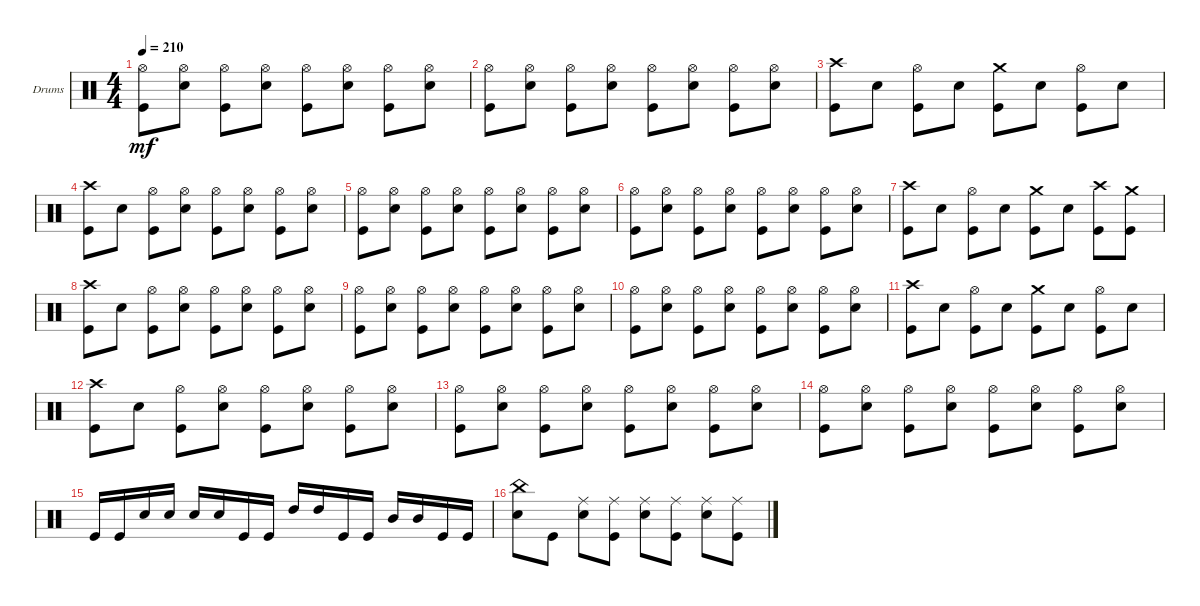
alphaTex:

\bracketExtendMode groupsimilarinstruments
\firstSystemTrackNameOrientation horizontal
\otherSystemsTrackNameOrientation horizontal
\track ("Drumkit" "Drums") {instrument percussion}
\staff {score}
\articulation defaults
\ts (4 4)
\tempo 210
\clef neutral
\ks c
("Hi-Hat (open)" "Kick (hit)").8{dy mf} ("Hi-Hat (open)" "Snare (hit) 2").8 ("Hi-Hat (open)" "Kick (hit)").8 ("Hi-Hat (open)" "Snare (hit) 2").8 ("Hi-Hat (open)" "Kick (hit)").8 ("Hi-Hat (open)" "Snare (hit) 2").8 ("Hi-Hat (open)" "Kick (hit)").8 ("Hi-Hat (open)" "Snare (hit) 2").8 |
("Hi-Hat (open)" "Kick (hit)").8 ("Hi-Hat (open)" "Snare (hit) 2").8 ("Hi-Hat (open)" "Kick (hit)").8 ("Hi-Hat (open)" "Snare (hit) 2").8 ("Hi-Hat (open)" "Kick (hit)").8 ("Hi-Hat (open)" "Snare (hit) 2").8 ("Hi-Hat (open)" "Kick (hit)").8 ("Hi-Hat (open)" "Snare (hit) 2").8 |
("Kick (hit)" "Crash high (hit)").8 "Snare (hit) 2".8 ("Hi-Hat (open)" "Kick (hit)").8 "Snare (hit) 2".8 ("Kick (hit)" "Crash medium (hit)").8 "Snare (hit) 2".8 ("Hi-Hat (open)" "Kick (hit)").8 "Snare (hit) 2".8 |
("Kick (hit)" "Crash high (hit)").8 "Snare (hit) 2".8 ("Hi-Hat (open)" "Kick (hit)").8 ("Hi-Hat (open)" "Snare (hit) 2").8 ("Hi-Hat (open)" "Kick (hit)").8 ("Hi-Hat (open)" "Snare (hit) 2").8 ("Hi-Hat (open)" "Kick (hit)").8 ("Hi-Hat (open)" "Snare (hit) 2").8 |
("Hi-Hat (open)" "Kick (hit)").8 ("Hi-Hat (open)" "Snare (hit) 2").8 ("Hi-Hat (open)" "Kick (hit)").8 ("Hi-Hat (open)" "Snare (hit) 2").8 ("Hi-Hat (open)" "Kick (hit)").8 ("Hi-Hat (open)" "Snare (hit) 2").8 ("Hi-Hat (open)" "Kick (hit)").8 ("Hi-Hat (open)" "Snare (hit) 2").8 |
("Hi-Hat (open)" "Kick (hit)").8 ("Hi-Hat (open)" "Snare (hit) 2").8 ("Hi-Hat (open)" "Kick (hit)").8 ("Hi-Hat (open)" "Snare (hit) 2").8 ("Hi-Hat (open)" "Kick (hit)").8 ("Hi-Hat (open)" "Snare (hit) 2").8 ("Hi-Hat (open)" "Kick (hit)").8 ("Hi-Hat (open)" "Snare (hit) 2").8 |
("Kick (hit)" "Crash high (hit)").8 "Snare (hit) 2".8 ("Hi-Hat (open)" "Kick (hit)").8 "Snare (hit) 2".8 ("Kick (hit)" "Crash medium (hit)").8 "Snare (hit) 2".8 ("Kick (hit)" "Crash high (hit)").8 ("Kick (hit)" "Crash medium (hit)").8 |
("Kick (hit)" "Crash high (hit)").8 "Snare (hit) 2".8 ("Hi-Hat (open)" "Kick (hit)").8 ("Hi-Hat (open)" "Snare (hit) 2").8 ("Hi-Hat (open)" "Kick (hit)").8 ("Hi-Hat (open)" "Snare (hit) 2").8 ("Hi-Hat (open)" "Kick (hit)").8 ("Hi-Hat (open)" "Snare (hit) 2").8 |
("Hi-Hat (open)" "Kick (hit)").8 ("Hi-Hat (open)" "Snare (hit) 2").8 ("Hi-Hat (open)" "Kick (hit)").8 ("Hi-Hat (open)" "Snare (hit) 2").8 ("Hi-Hat (open)" "Kick (hit)").8 ("Hi-Hat (open)" "Snare (hit) 2").8 ("Hi-Hat (open)" "Kick (hit)").8 ("Hi-Hat (open)" "Snare (hit) 2").8 |
("Hi-Hat (open)" "Kick (hit)").8 ("Hi-Hat (open)" "Snare (hit) 2").8 ("Hi-Hat (open)" "Kick (hit)").8 ("Hi-Hat (open)" "Snare (hit) 2").8 ("Hi-Hat (open)" "Kick (hit)").8 ("Hi-Hat (open)" "Snare (hit) 2").8 ("Hi-Hat (open)" "Kick (hit)").8 ("Hi-Hat (open)" "Snare (hit) 2").8 |
("Kick (hit)" "Crash high (hit)").8 "Snare (hit) 2".8 ("Hi-Hat (open)" "Kick (hit)").8 "Snare (hit) 2".8 ("Kick (hit)" "Crash medium (hit)").8 "Snare (hit) 2".8 ("Hi-Hat (open)" "Kick (hit)").8 "Snare (hit) 2".8 |
("Kick (hit)" "Crash high (hit)").8 "Snare (hit) 2".8 ("Hi-Hat (open)" "Kick (hit)").8 ("Hi-Hat (open)" "Snare (hit) 2").8 ("Hi-Hat (open)" "Kick (hit)").8 ("Hi-Hat (open)" "Snare (hit) 2").8 ("Hi-Hat (open)" "Kick (hit)").8 ("Hi-Hat (open)" "Snare (hit) 2").8 |
("Hi-Hat (open)" "Kick (hit)").8 ("Hi-Hat (open)" "Snare (hit) 2").8 ("Hi-Hat (open)" "Kick (hit)").8 ("Hi-Hat (open)" "Snare (hit) 2").8 ("Hi-Hat (open)" "Kick (hit)").8 ("Hi-Hat (open)" "Snare (hit) 2").8 ("Hi-Hat (open)" "Kick (hit)").8 ("Hi-Hat (open)" "Snare (hit) 2").8 |
("Hi-Hat (open)" "Kick (hit)").8 ("Hi-Hat (open)" "Snare (hit) 2").8 ("Hi-Hat (open)" "Kick (hit)").8 ("Hi-Hat (open)" "Snare (hit) 2").8 ("Hi-Hat (open)" "Kick (hit)").8 ("Hi-Hat (open)" "Snare (hit) 2").8 ("Hi-Hat (open)" "Kick (hit)").8 ("Hi-Hat (open)" "Snare (hit) 2").8 |
"Kick (hit)".16 "Kick (hit)".16 "Snare (hit) 2".16 "Snare (hit) 2".16 "Snare (hit) 2".16 "Snare (hit) 2".16 "Kick (hit)".16 "Kick (hit)".16 "High Tom (hit)".16 "High Tom (hit)".16 "Kick (hit)".16 "Kick (hit)".16 "Mid Tom (hit)".16 "Mid Tom (hit)".16 "Kick (hit)".16 "Kick (hit)".16 |
("Snare (hit) 2" "China (hit)").8 "Kick (hit)".8 ("Ride (middle)" "Snare (hit) 2").8 ("Ride (middle)" "Kick (hit)").8 ("Ride (middle)" "Snare (hit) 2").8 ("Ride (middle)" "Kick (hit)").8 ("Ride (middle)" "Snare (hit) 2").8 ("Ride (middle)" "Kick (hit)").8
